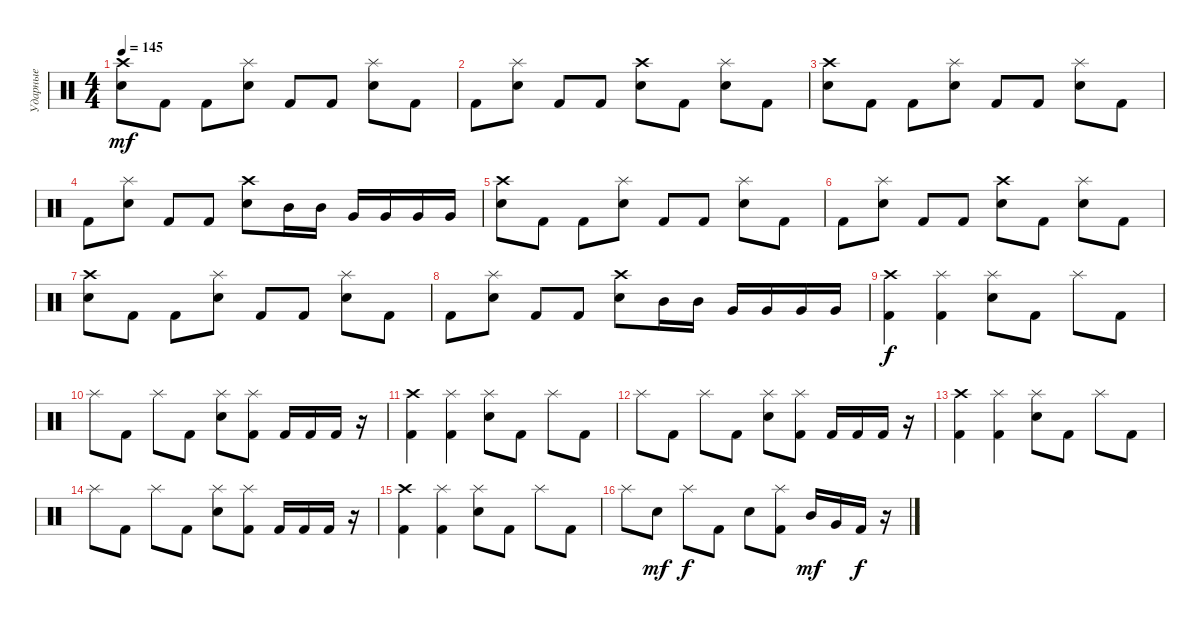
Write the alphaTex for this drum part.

\track ("Ударные" "Ударные") {instrument percussion}
\staff {score}
\articulation defaults
\ts (4 4)
\tempo 145
\clef neutral
\ks c
("Crash high (hit)" "Snare (hit) 2").8{dy mf} "Kick (hit) 2".8 "Kick (hit) 2".8 ("Splash (hit)" "Snare (hit) 2").8 "Kick (hit) 2".8 "Kick (hit) 2".8 ("Splash (hit)" "Snare (hit) 2").8 "Kick (hit) 2".8 |
"Kick (hit) 2".8 ("Splash (hit)" "Snare (hit) 2").8 "Kick (hit) 2".8 "Kick (hit) 2".8 ("Crash high (hit)" "Snare (hit) 2").8 "Kick (hit) 2".8 ("Splash (hit)" "Snare (hit) 2").8 "Kick (hit) 2".8 |
("Crash high (hit)" "Snare (hit) 2").8 "Kick (hit) 2".8 "Kick (hit) 2".8 ("Splash (hit)" "Snare (hit) 2").8 "Kick (hit) 2".8 "Kick (hit) 2".8 ("Splash (hit)" "Snare (hit) 2").8 "Kick (hit) 2".8 |
"Kick (hit) 2".8 ("Splash (hit)" "Snare (hit) 2").8 "Kick (hit) 2".8 "Kick (hit) 2".8 ("Crash high (hit)" "Snare (hit) 2").8 "Mid Tom (hit)".16 "Mid Tom (hit)".16 "Very Low Tom (hit)".16 "Very Low Tom (hit)".16 "Very Low Tom (hit)".16 "Very Low Tom (hit)".16 |
("Crash high (hit)" "Snare (hit) 2").8 "Kick (hit) 2".8 "Kick (hit) 2".8 ("Splash (hit)" "Snare (hit) 2").8 "Kick (hit) 2".8 "Kick (hit) 2".8 ("Splash (hit)" "Snare (hit) 2").8 "Kick (hit) 2".8 |
"Kick (hit) 2".8 ("Splash (hit)" "Snare (hit) 2").8 "Kick (hit) 2".8 "Kick (hit) 2".8 ("Crash high (hit)" "Snare (hit) 2").8 "Kick (hit) 2".8 ("Splash (hit)" "Snare (hit) 2").8 "Kick (hit) 2".8 |
("Crash high (hit)" "Snare (hit) 2").8 "Kick (hit) 2".8 "Kick (hit) 2".8 ("Splash (hit)" "Snare (hit) 2").8 "Kick (hit) 2".8 "Kick (hit) 2".8 ("Splash (hit)" "Snare (hit) 2").8 "Kick (hit) 2".8 |
"Kick (hit) 2".8 ("Splash (hit)" "Snare (hit) 2").8 "Kick (hit) 2".8 "Kick (hit) 2".8 ("Crash high (hit)" "Snare (hit) 2").8 "Mid Tom (hit)".16 "Mid Tom (hit)".16 "Very Low Tom (hit)".16 "Very Low Tom (hit)".16 "Very Low Tom (hit)".16 "Very Low Tom (hit)".16 |
("Crash high (hit)" "Kick (hit) 2").4{dy f} ("Splash (hit)" "Kick (hit) 2").4 ("Splash (hit)" "Snare (hit) 2").8 "Kick (hit) 2".8 "Splash (hit)".8 "Kick (hit) 2".8 |
"Splash (hit)".8 "Kick (hit) 2".8 "Splash (hit)".8 "Kick (hit) 2".8 ("Splash (hit)" "Snare (hit) 2").8 ("Splash (hit)" "Kick (hit) 2").8 "Kick (hit) 2".16 "Kick (hit) 2".16 "Kick (hit) 2".16 r.16 |
("Crash high (hit)" "Kick (hit) 2").4 ("Splash (hit)" "Kick (hit) 2").4 ("Splash (hit)" "Snare (hit) 2").8 "Kick (hit) 2".8 "Splash (hit)".8 "Kick (hit) 2".8 |
"Splash (hit)".8 "Kick (hit) 2".8 "Splash (hit)".8 "Kick (hit) 2".8 ("Splash (hit)" "Snare (hit) 2").8 ("Splash (hit)" "Kick (hit) 2").8 "Kick (hit) 2".16 "Kick (hit) 2".16 "Kick (hit) 2".16 r.16 |
("Crash high (hit)" "Kick (hit) 2").4 ("Splash (hit)" "Kick (hit) 2").4 ("Splash (hit)" "Snare (hit) 2").8 "Kick (hit) 2".8 "Splash (hit)".8 "Kick (hit) 2".8 |
"Splash (hit)".8 "Kick (hit) 2".8 "Splash (hit)".8 "Kick (hit) 2".8 ("Splash (hit)" "Snare (hit) 2").8 ("Splash (hit)" "Kick (hit) 2").8 "Kick (hit) 2".16 "Kick (hit) 2".16 "Kick (hit) 2".16 r.16 |
("Crash high (hit)" "Kick (hit) 2").4 ("Splash (hit)" "Kick (hit) 2").4 ("Splash (hit)" "Snare (hit) 2").8 "Kick (hit) 2".8 "Splash (hit)".8 "Kick (hit) 2".8 |
"Splash (hit)".8 "Snare (hit) 2".8{dy mf} "Splash (hit)".8{dy f} "Kick (hit) 2".8 "Snare (hit) 2".8 ("Splash (hit)" "Kick (hit) 2").8 "Mid Tom (hit)".16{dy mf} "Very Low Tom (hit)".16 "Kick (hit) 2".16{dy f} r.16
